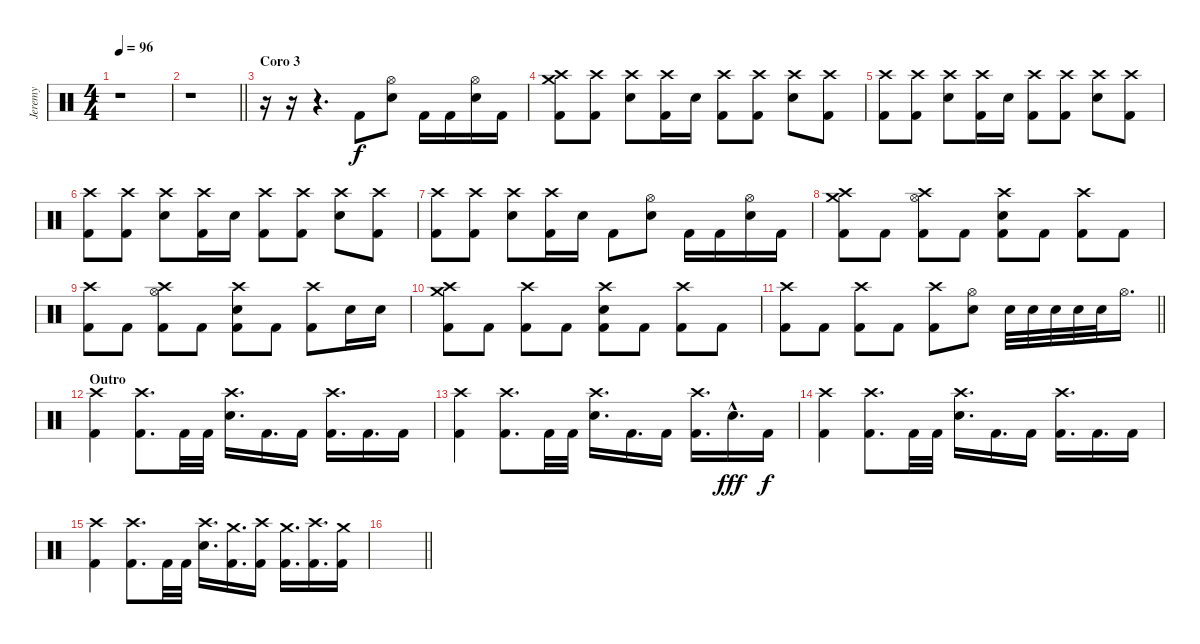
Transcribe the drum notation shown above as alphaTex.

\track ("Jeremy" "Jeremy") {instrument percussion}
\staff {score}
\articulation defaults
\ts (4 4)
\tempo 96
\clef neutral
\ks c
r.1{dy f} |
\barLineRight lightlight
r.1 |
\section ("" "Coro 3")
r.16 r.16 r.4{d} "Kick (hit) 2".8 ("Hi-Hat (open)" "Snare (hit) 2").8 "Kick (hit) 2".16 "Kick (hit) 2".16 ("Hi-Hat (open)" "Snare (hit) 2").16 "Kick (hit) 2".16 |
("Crash medium (hit)" "Crash high (hit)" "Kick (hit) 2").8 ("Crash high (hit)" "Kick (hit) 2").8 ("Crash high (hit)" "Snare (hit) 2").8 ("Crash high (hit)" "Kick (hit) 2").16 "Snare (hit) 2".16 ("Crash high (hit)" "Kick (hit) 2").8 ("Crash high (hit)" "Kick (hit) 2").8 ("Crash high (hit)" "Snare (hit) 2").8 ("Crash high (hit)" "Kick (hit) 2").8 |
("Crash high (hit)" "Kick (hit) 2").8 ("Crash high (hit)" "Kick (hit) 2").8 ("Crash high (hit)" "Snare (hit) 2").8 ("Crash high (hit)" "Kick (hit) 2").16 "Snare (hit) 2".16 ("Crash high (hit)" "Kick (hit) 2").8 ("Crash high (hit)" "Kick (hit) 2").8 ("Crash high (hit)" "Snare (hit) 2").8 ("Crash high (hit)" "Kick (hit) 2").8 |
("Crash high (hit)" "Kick (hit) 2").8 ("Crash high (hit)" "Kick (hit) 2").8 ("Crash high (hit)" "Snare (hit) 2").8 ("Crash high (hit)" "Kick (hit) 2").16 "Snare (hit) 2".16 ("Crash high (hit)" "Kick (hit) 2").8 ("Crash high (hit)" "Kick (hit) 2").8 ("Crash high (hit)" "Snare (hit) 2").8 ("Crash high (hit)" "Kick (hit) 2").8 |
("Crash high (hit)" "Kick (hit) 2").8 ("Crash high (hit)" "Kick (hit) 2").8 ("Crash high (hit)" "Snare (hit) 2").8 ("Crash high (hit)" "Kick (hit) 2").16 "Snare (hit) 2".16 "Kick (hit) 2".8 ("Hi-Hat (open)" "Snare (hit) 2").8 "Kick (hit) 2".16 "Kick (hit) 2".16 ("Hi-Hat (open)" "Snare (hit) 2").16 "Kick (hit) 2".16 |
("Crash medium (hit)" "Crash high (hit)" "Kick (hit) 2").8 "Kick (hit) 2".8 ("Crash high (hit)" "Hi-Hat (open)" "Kick (hit) 2").8 "Kick (hit) 2".8 ("Crash high (hit)" "Snare (hit) 2" "Kick (hit) 2").8 "Kick (hit) 2".8 ("Crash high (hit)" "Kick (hit) 2").8 "Kick (hit) 2".8 |
("Crash high (hit)" "Kick (hit) 2").8 "Kick (hit) 2".8 ("Crash high (hit)" "Hi-Hat (open)" "Kick (hit) 2").8 "Kick (hit) 2".8 ("Crash high (hit)" "Snare (hit) 2" "Kick (hit) 2").8 "Kick (hit) 2".8 ("Crash high (hit)" "Kick (hit) 2").8 "Snare (hit) 2".16 "Snare (hit) 2".16 |
("Crash medium (hit)" "Crash high (hit)" "Kick (hit) 2").8 "Kick (hit) 2".8 ("Crash high (hit)" "Kick (hit) 2").8 "Kick (hit) 2".8 ("Crash high (hit)" "Snare (hit) 2" "Kick (hit) 2").8 "Kick (hit) 2".8 ("Crash high (hit)" "Kick (hit) 2").8 "Kick (hit) 2".8 |
\barLineRight lightlight
("Crash high (hit)" "Kick (hit) 2").8 "Kick (hit) 2".8 ("Crash high (hit)" "Kick (hit) 2").8 "Kick (hit) 2".8 ("Crash high (hit)" "Kick (hit) 2").8 ("Hi-Hat (open)" "Snare (hit) 2").8 "Snare (hit) 2".32 "Snare (hit) 2".32 "Snare (hit) 2".32 "Snare (hit) 2".32 "Snare (hit) 2".32 "Hi-Hat (open)".16{d} |
\section ("" "Outro")
("Crash high (hit)" "Kick (hit) 2").4 ("Crash high (hit)" "Kick (hit) 2").8{d} "Kick (hit) 2".32 "Kick (hit) 2".32 ("Crash high (hit)" "Snare (hit) 2").16{d} "Kick (hit) 2".16{d} "Kick (hit) 2".16 ("Crash high (hit)" "Kick (hit) 2").16{d} "Kick (hit) 2".16{d} "Kick (hit) 2".16 |
("Crash high (hit)" "Kick (hit) 2").4 ("Crash high (hit)" "Kick (hit) 2").8{d} "Kick (hit) 2".32 "Kick (hit) 2".32 ("Crash high (hit)" "Snare (hit) 2").16{d} "Kick (hit) 2".16{d} "Kick (hit) 2".16 ("Crash high (hit)" "Kick (hit) 2").16{d} "Snare (hit) 2"{hac}.16{d dy fff} "Kick (hit) 2".16{dy f} |
("Crash high (hit)" "Kick (hit) 2").4 ("Crash high (hit)" "Kick (hit) 2").8{d} "Kick (hit) 2".32 "Kick (hit) 2".32 ("Crash high (hit)" "Snare (hit) 2").16{d} "Kick (hit) 2".16{d} "Kick (hit) 2".16 ("Crash high (hit)" "Kick (hit) 2").16{d} "Kick (hit) 2".16{d} "Kick (hit) 2".16 |
("Crash high (hit)" "Kick (hit) 2").4 ("Crash high (hit)" "Kick (hit) 2").8{d} "Kick (hit) 2".32 "Kick (hit) 2".32 ("Crash high (hit)" "Snare (hit) 2").16{d} ("Crash medium (hit)" "Kick (hit) 2").16{d} ("Crash high (hit)" "Kick (hit) 2").16 ("Crash medium (hit)" "Kick (hit) 2").16{d} ("Crash high (hit)" "Kick (hit) 2").16{d} ("Crash medium (hit)" "Kick (hit) 2").16 |
\barLineRight lightlight
